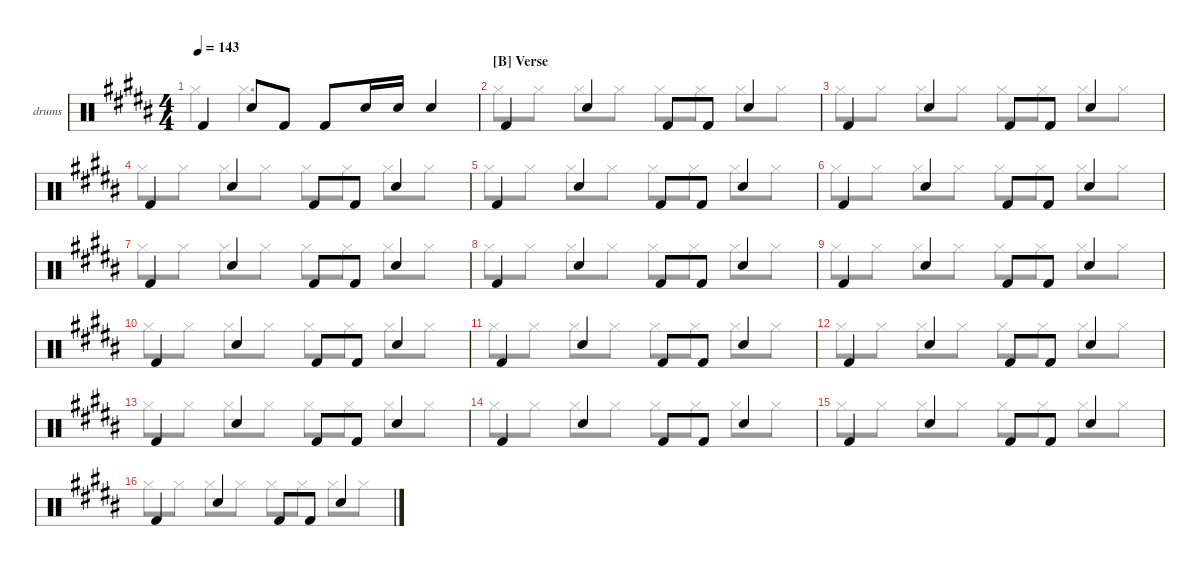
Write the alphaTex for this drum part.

\defaultSystemsLayout 4
\hideDynamics
\bracketExtendMode nobrackets
\firstSystemTrackNameOrientation horizontal
\otherSystemsTrackNameOrientation horizontal
\track ("Drumkit" "drums") {instrument percussion}
\staff {score}
\articulation defaults
\voice
\ts (4 4)
\tempo 143
\clef neutral
\ks g#minor "Kick (hit) 2"{acc forcenatural}.4{dy mf beam Up} "Snare (hit) 2"{acc forcenatural}.8{beam Up} "Kick (hit) 2"{acc forcenatural}.8{beam Up} "Kick (hit) 2"{acc forcenatural}.8{beam Up} "Snare (hit) 2"{acc forcenatural}.16{beam Up} "Snare (hit) 2"{acc forcenatural}.16{beam Up} "Snare (hit) 2"{acc forcenatural}.4{beam Up}
|
\section ("B" "Verse")
"Kick (hit) 2"{acc forcenatural}.4{beam Up} "Snare (hit) 2"{acc forcenatural}.4{beam Up} "Kick (hit) 2"{acc forcenatural}.8{beam Up} "Kick (hit) 2"{acc forcenatural}.8{beam Up} "Snare (hit) 2"{acc forcenatural}.4{beam Up} |
"Kick (hit) 2"{acc forcenatural}.4{beam Up} "Snare (hit) 2"{acc forcenatural}.4{beam Up} "Kick (hit) 2"{acc forcenatural}.8{beam Up} "Kick (hit) 2"{acc forcenatural}.8{beam Up} "Snare (hit) 2"{acc forcenatural}.4{beam Up} |
"Kick (hit) 2"{acc forcenatural}.4{beam Up} "Snare (hit) 2"{acc forcenatural}.4{beam Up} "Kick (hit) 2"{acc forcenatural}.8{beam Up} "Kick (hit) 2"{acc forcenatural}.8{beam Up} "Snare (hit) 2"{acc forcenatural}.4{beam Up} |
"Kick (hit) 2"{acc forcenatural}.4{beam Up} "Snare (hit) 2"{acc forcenatural}.4{beam Up} "Kick (hit) 2"{acc forcenatural}.8{beam Up} "Kick (hit) 2"{acc forcenatural}.8{beam Up} "Snare (hit) 2"{acc forcenatural}.4{beam Up} |
"Kick (hit) 2"{acc forcenatural}.4{beam Up} "Snare (hit) 2"{acc forcenatural}.4{beam Up} "Kick (hit) 2"{acc forcenatural}.8{beam Up} "Kick (hit) 2"{acc forcenatural}.8{beam Up} "Snare (hit) 2"{acc forcenatural}.4{beam Up} |
"Kick (hit) 2"{acc forcenatural}.4{beam Up} "Snare (hit) 2"{acc forcenatural}.4{beam Up} "Kick (hit) 2"{acc forcenatural}.8{beam Up} "Kick (hit) 2"{acc forcenatural}.8{beam Up} "Snare (hit) 2"{acc forcenatural}.4{beam Up} |
"Kick (hit) 2"{acc forcenatural}.4{beam Up} "Snare (hit) 2"{acc forcenatural}.4{beam Up} "Kick (hit) 2"{acc forcenatural}.8{beam Up} "Kick (hit) 2"{acc forcenatural}.8{beam Up} "Snare (hit) 2"{acc forcenatural}.4{beam Up} |
"Kick (hit) 2"{acc forcenatural}.4{beam Up} "Snare (hit) 2"{acc forcenatural}.4{beam Up} "Kick (hit) 2"{acc forcenatural}.8{beam Up} "Kick (hit) 2"{acc forcenatural}.8{beam Up} "Snare (hit) 2"{acc forcenatural}.4{beam Up} |
"Kick (hit) 2"{acc forcenatural}.4{beam Up} "Snare (hit) 2"{acc forcenatural}.4{beam Up} "Kick (hit) 2"{acc forcenatural}.8{beam Up} "Kick (hit) 2"{acc forcenatural}.8{beam Up} "Snare (hit) 2"{acc forcenatural}.4{beam Up} |
"Kick (hit) 2"{acc forcenatural}.4{beam Up} "Snare (hit) 2"{acc forcenatural}.4{beam Up} "Kick (hit) 2"{acc forcenatural}.8{beam Up} "Kick (hit) 2"{acc forcenatural}.8{beam Up} "Snare (hit) 2"{acc forcenatural}.4{beam Up} |
"Kick (hit) 2"{acc forcenatural}.4{beam Up} "Snare (hit) 2"{acc forcenatural}.4{beam Up} "Kick (hit) 2"{acc forcenatural}.8{beam Up} "Kick (hit) 2"{acc forcenatural}.8{beam Up} "Snare (hit) 2"{acc forcenatural}.4{beam Up} |
"Kick (hit) 2"{acc forcenatural}.4{beam Up} "Snare (hit) 2"{acc forcenatural}.4{beam Up} "Kick (hit) 2"{acc forcenatural}.8{beam Up} "Kick (hit) 2"{acc forcenatural}.8{beam Up} "Snare (hit) 2"{acc forcenatural}.4{beam Up} |
"Kick (hit) 2"{acc forcenatural}.4{beam Up} "Snare (hit) 2"{acc forcenatural}.4{beam Up} "Kick (hit) 2"{acc forcenatural}.8{beam Up} "Kick (hit) 2"{acc forcenatural}.8{beam Up} "Snare (hit) 2"{acc forcenatural}.4{beam Up} |
"Kick (hit) 2"{acc forcenatural}.4{beam Up} "Snare (hit) 2"{acc forcenatural}.4{beam Up} "Kick (hit) 2"{acc forcenatural}.8{beam Up} "Kick (hit) 2"{acc forcenatural}.8{beam Up} "Snare (hit) 2"{acc forcenatural}.4{beam Up} |
"Kick (hit) 2"{acc forcenatural}.4{beam Up} "Snare (hit) 2"{acc forcenatural}.4{beam Up} "Kick (hit) 2"{acc forcenatural}.8{beam Up} "Kick (hit) 2"{acc forcenatural}.8{beam Up} "Snare (hit) 2"{acc forcenatural}.4{beam Up}
\voice
\clef neutral
\ottava regular
\simile none
\ks g#minor "Hi-Hat (closed)"{acc forcenatural}.4{dy mf beam Down} "Hi-Hat (closed)"{acc forcenatural}.2{d beam Down}
|
"Hi-Hat (closed)"{acc forcenatural}.8{beam Down} "Hi-Hat (closed)"{acc forcenatural}.8{beam Down} "Hi-Hat (closed)"{acc forcenatural}.8{beam Down} "Hi-Hat (closed)"{acc forcenatural}.8{beam Down} "Hi-Hat (closed)"{acc forcenatural}.8{beam Down} "Hi-Hat (closed)"{acc forcenatural}.8{beam Down} "Hi-Hat (closed)"{acc forcenatural}.8{beam Down} "Hi-Hat (closed)"{acc forcenatural}.8{beam Down} |
"Hi-Hat (closed)"{acc forcenatural}.8{beam Down} "Hi-Hat (closed)"{acc forcenatural}.8{beam Down} "Hi-Hat (closed)"{acc forcenatural}.8{beam Down} "Hi-Hat (closed)"{acc forcenatural}.8{beam Down} "Hi-Hat (closed)"{acc forcenatural}.8{beam Down} "Hi-Hat (closed)"{acc forcenatural}.8{beam Down} "Hi-Hat (closed)"{acc forcenatural}.8{beam Down} "Hi-Hat (closed)"{acc forcenatural}.8{beam Down} |
"Hi-Hat (closed)"{acc forcenatural}.8{beam Down} "Hi-Hat (closed)"{acc forcenatural}.8{beam Down} "Hi-Hat (closed)"{acc forcenatural}.8{beam Down} "Hi-Hat (closed)"{acc forcenatural}.8{beam Down} "Hi-Hat (closed)"{acc forcenatural}.8{beam Down} "Hi-Hat (closed)"{acc forcenatural}.8{beam Down} "Hi-Hat (closed)"{acc forcenatural}.8{beam Down} "Hi-Hat (closed)"{acc forcenatural}.8{beam Down} |
"Hi-Hat (closed)"{acc forcenatural}.8{beam Down} "Hi-Hat (closed)"{acc forcenatural}.8{beam Down} "Hi-Hat (closed)"{acc forcenatural}.8{beam Down} "Hi-Hat (closed)"{acc forcenatural}.8{beam Down} "Hi-Hat (closed)"{acc forcenatural}.8{beam Down} "Hi-Hat (closed)"{acc forcenatural}.8{beam Down} "Hi-Hat (closed)"{acc forcenatural}.8{beam Down} "Hi-Hat (closed)"{acc forcenatural}.8{beam Down} |
"Hi-Hat (closed)"{acc forcenatural}.8{beam Down} "Hi-Hat (closed)"{acc forcenatural}.8{beam Down} "Hi-Hat (closed)"{acc forcenatural}.8{beam Down} "Hi-Hat (closed)"{acc forcenatural}.8{beam Down} "Hi-Hat (closed)"{acc forcenatural}.8{beam Down} "Hi-Hat (closed)"{acc forcenatural}.8{beam Down} "Hi-Hat (closed)"{acc forcenatural}.8{beam Down} "Hi-Hat (closed)"{acc forcenatural}.8{beam Down} |
"Hi-Hat (closed)"{acc forcenatural}.8{beam Down} "Hi-Hat (closed)"{acc forcenatural}.8{beam Down} "Hi-Hat (closed)"{acc forcenatural}.8{beam Down} "Hi-Hat (closed)"{acc forcenatural}.8{beam Down} "Hi-Hat (closed)"{acc forcenatural}.8{beam Down} "Hi-Hat (closed)"{acc forcenatural}.8{beam Down} "Hi-Hat (closed)"{acc forcenatural}.8{beam Down} "Hi-Hat (closed)"{acc forcenatural}.8{beam Down} |
"Hi-Hat (closed)"{acc forcenatural}.8{beam Down} "Hi-Hat (closed)"{acc forcenatural}.8{beam Down} "Hi-Hat (closed)"{acc forcenatural}.8{beam Down} "Hi-Hat (closed)"{acc forcenatural}.8{beam Down} "Hi-Hat (closed)"{acc forcenatural}.8{beam Down} "Hi-Hat (closed)"{acc forcenatural}.8{beam Down} "Hi-Hat (closed)"{acc forcenatural}.8{beam Down} "Hi-Hat (closed)"{acc forcenatural}.8{beam Down} |
"Hi-Hat (closed)"{acc forcenatural}.8{beam Down} "Hi-Hat (closed)"{acc forcenatural}.8{beam Down} "Hi-Hat (closed)"{acc forcenatural}.8{beam Down} "Hi-Hat (closed)"{acc forcenatural}.8{beam Down} "Hi-Hat (closed)"{acc forcenatural}.8{beam Down} "Hi-Hat (closed)"{acc forcenatural}.8{beam Down} "Hi-Hat (closed)"{acc forcenatural}.8{beam Down} "Hi-Hat (closed)"{acc forcenatural}.8{beam Down} |
"Hi-Hat (closed)"{acc forcenatural}.8{beam Down} "Hi-Hat (closed)"{acc forcenatural}.8{beam Down} "Hi-Hat (closed)"{acc forcenatural}.8{beam Down} "Hi-Hat (closed)"{acc forcenatural}.8{beam Down} "Hi-Hat (closed)"{acc forcenatural}.8{beam Down} "Hi-Hat (closed)"{acc forcenatural}.8{beam Down} "Hi-Hat (closed)"{acc forcenatural}.8{beam Down} "Hi-Hat (closed)"{acc forcenatural}.8{beam Down} |
"Hi-Hat (closed)"{acc forcenatural}.8{beam Down} "Hi-Hat (closed)"{acc forcenatural}.8{beam Down} "Hi-Hat (closed)"{acc forcenatural}.8{beam Down} "Hi-Hat (closed)"{acc forcenatural}.8{beam Down} "Hi-Hat (closed)"{acc forcenatural}.8{beam Down} "Hi-Hat (closed)"{acc forcenatural}.8{beam Down} "Hi-Hat (closed)"{acc forcenatural}.8{beam Down} "Hi-Hat (closed)"{acc forcenatural}.8{beam Down} |
"Hi-Hat (closed)"{acc forcenatural}.8{beam Down} "Hi-Hat (closed)"{acc forcenatural}.8{beam Down} "Hi-Hat (closed)"{acc forcenatural}.8{beam Down} "Hi-Hat (closed)"{acc forcenatural}.8{beam Down} "Hi-Hat (closed)"{acc forcenatural}.8{beam Down} "Hi-Hat (closed)"{acc forcenatural}.8{beam Down} "Hi-Hat (closed)"{acc forcenatural}.8{beam Down} "Hi-Hat (closed)"{acc forcenatural}.8{beam Down} |
"Hi-Hat (closed)"{acc forcenatural}.8{beam Down} "Hi-Hat (closed)"{acc forcenatural}.8{beam Down} "Hi-Hat (closed)"{acc forcenatural}.8{beam Down} "Hi-Hat (closed)"{acc forcenatural}.8{beam Down} "Hi-Hat (closed)"{acc forcenatural}.8{beam Down} "Hi-Hat (closed)"{acc forcenatural}.8{beam Down} "Hi-Hat (closed)"{acc forcenatural}.8{beam Down} "Hi-Hat (closed)"{acc forcenatural}.8{beam Down} |
"Hi-Hat (closed)"{acc forcenatural}.8{beam Down} "Hi-Hat (closed)"{acc forcenatural}.8{beam Down} "Hi-Hat (closed)"{acc forcenatural}.8{beam Down} "Hi-Hat (closed)"{acc forcenatural}.8{beam Down} "Hi-Hat (closed)"{acc forcenatural}.8{beam Down} "Hi-Hat (closed)"{acc forcenatural}.8{beam Down} "Hi-Hat (closed)"{acc forcenatural}.8{beam Down} "Hi-Hat (closed)"{acc forcenatural}.8{beam Down} |
"Hi-Hat (closed)"{acc forcenatural}.8{beam Down} "Hi-Hat (closed)"{acc forcenatural}.8{beam Down} "Hi-Hat (closed)"{acc forcenatural}.8{beam Down} "Hi-Hat (closed)"{acc forcenatural}.8{beam Down} "Hi-Hat (closed)"{acc forcenatural}.8{beam Down} "Hi-Hat (closed)"{acc forcenatural}.8{beam Down} "Hi-Hat (closed)"{acc forcenatural}.8{beam Down} "Hi-Hat (closed)"{acc forcenatural}.8{beam Down} |
"Hi-Hat (closed)"{acc forcenatural}.8{beam Down} "Hi-Hat (closed)"{acc forcenatural}.8{beam Down} "Hi-Hat (closed)"{acc forcenatural}.8{beam Down} "Hi-Hat (closed)"{acc forcenatural}.8{beam Down} "Hi-Hat (closed)"{acc forcenatural}.8{beam Down} "Hi-Hat (closed)"{acc forcenatural}.8{beam Down} "Hi-Hat (closed)"{acc forcenatural}.8{beam Down} "Hi-Hat (closed)"{acc forcenatural}.8{beam Down}
